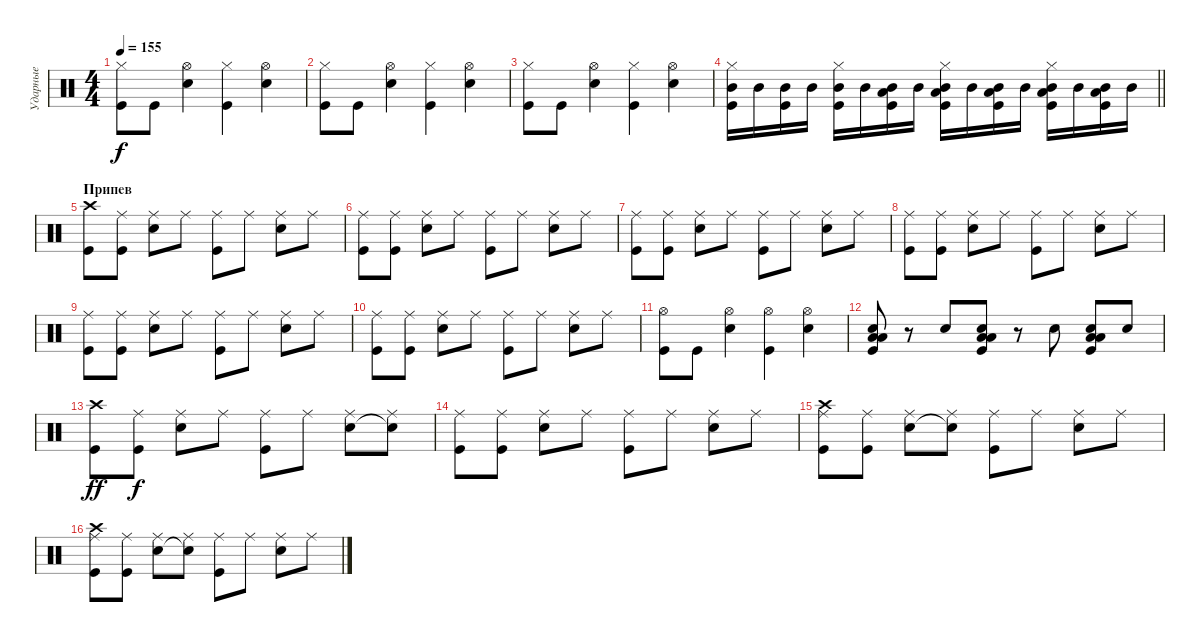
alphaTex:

\track ("Ударные" "Ударные") {instrument percussion}
\staff {score}
\articulation defaults
\ts (4 4)
\tempo 155
\clef neutral
\ks c
("Hi-Hat (closed)" "Kick (hit)").8{dy f} "Kick (hit)".8 ("Hi-Hat (open)" "Snare (hit) 2").4 ("Hi-Hat (closed)" "Kick (hit)").4 ("Hi-Hat (open)" "Snare (hit) 2").4 |
("Hi-Hat (closed)" "Kick (hit)").8 "Kick (hit)".8 ("Hi-Hat (open)" "Snare (hit) 2").4 ("Hi-Hat (closed)" "Kick (hit)").4 ("Hi-Hat (open)" "Snare (hit) 2").4 |
("Hi-Hat (closed)" "Kick (hit)").8 "Kick (hit)".8 ("Hi-Hat (open)" "Snare (hit) 2").4 ("Hi-Hat (closed)" "Kick (hit)").4 ("Hi-Hat (open)" "Snare (hit) 2").4 |
\barLineRight lightlight
("Hi-Hat (closed)" "Mid Tom (hit)" "Kick (hit)").16 "Mid Tom (hit)".16 ("Mid Tom (hit)" "Kick (hit)").16 "Mid Tom (hit)".16 ("Hi-Hat (closed)" "Mid Tom (hit)" "Kick (hit)").16 "Mid Tom (hit)".16 ("Mid Tom (hit)" "Low Floor Tom (hit)" "Kick (hit)").16 "Mid Tom (hit)".16 ("Hi-Hat (closed)" "Mid Tom (hit)" "Low Floor Tom (hit)" "Kick (hit)").16 "Mid Tom (hit)".16 ("Mid Tom (hit)" "Low Floor Tom (hit)" "Kick (hit)").16 "Mid Tom (hit)".16 ("Hi-Hat (closed)" "Mid Tom (hit)" "Low Floor Tom (hit)" "Kick (hit)").16 "Mid Tom (hit)".16 ("Mid Tom (hit)" "Low Floor Tom (hit)" "Kick (hit)").16 "Mid Tom (hit)".16 |
\section ("" "Припев")
("Crash high (hit)" "Kick (hit)").8 ("Ride (middle)" "Kick (hit)").8 ("Ride (middle)" "Snare (hit) 2").8 "Ride (middle)".8 ("Ride (middle)" "Kick (hit)").8 "Ride (middle)".8 ("Ride (middle)" "Snare (hit) 2").8 "Ride (middle)".8 |
("Ride (middle)" "Kick (hit)").8 ("Ride (middle)" "Kick (hit)").8 ("Ride (middle)" "Snare (hit) 2").8 "Ride (middle)".8 ("Ride (middle)" "Kick (hit)").8 "Ride (middle)".8 ("Ride (middle)" "Snare (hit) 2").8 "Ride (middle)".8 |
("Ride (middle)" "Kick (hit)").8 ("Ride (middle)" "Kick (hit)").8 ("Ride (middle)" "Snare (hit) 2").8 "Ride (middle)".8 ("Ride (middle)" "Kick (hit)").8 "Ride (middle)".8 ("Ride (middle)" "Snare (hit) 2").8 "Ride (middle)".8 |
("Ride (middle)" "Kick (hit)").8 ("Ride (middle)" "Kick (hit)").8 ("Ride (middle)" "Snare (hit) 2").8 "Ride (middle)".8 ("Ride (middle)" "Kick (hit)").8 "Ride (middle)".8 ("Ride (middle)" "Snare (hit) 2").8 "Ride (middle)".8 |
("Ride (middle)" "Kick (hit)").8 ("Ride (middle)" "Kick (hit)").8 ("Ride (middle)" "Snare (hit) 2").8 "Ride (middle)".8 ("Ride (middle)" "Kick (hit)").8 "Ride (middle)".8 ("Ride (middle)" "Snare (hit) 2").8 "Ride (middle)".8 |
("Ride (middle)" "Kick (hit)").8 ("Ride (middle)" "Kick (hit)").8 ("Ride (middle)" "Snare (hit) 2").8 "Ride (middle)".8 ("Ride (middle)" "Kick (hit)").8 "Ride (middle)".8 ("Ride (middle)" "Snare (hit) 2").8 "Ride (middle)".8 |
("Hi-Hat (open)" "Kick (hit)").8 "Kick (hit)".8 ("Hi-Hat (open)" "Snare (hit) 2").4 ("Hi-Hat (open)" "Kick (hit)").4 ("Hi-Hat (open)" "Snare (hit) 2").4 |
("Low Floor Tom (hit)" "Snare (hit) 2" "Low Tom (hit)" "Kick (hit)").8 r.8 "Snare (hit) 2".8 ("Low Floor Tom (hit)" "Snare (hit) 2" "Low Tom (hit)" "Kick (hit)").8 r.8 "Snare (hit) 2".8 ("Low Floor Tom (hit)" "Snare (hit) 2" "Low Tom (hit)" "Kick (hit)").8 "Snare (hit) 2".8 |
("Crash high (hit)" "Kick (hit)").8{dy ff} ("Ride (middle)" "Kick (hit)").8{dy f} ("Ride (middle)" "Snare (hit) 2").8 "Ride (middle)".8 ("Ride (middle)" "Kick (hit)").8 "Ride (middle)".8 ("Ride (middle)" "Snare (hit) 2").8 ("Ride (middle)" "Snare (hit)"{t}).8 |
("Ride (middle)" "Kick (hit)").8 ("Ride (middle)" "Kick (hit)").8 ("Ride (middle)" "Snare (hit) 2").8 "Ride (middle)".8 ("Ride (middle)" "Kick (hit)").8 "Ride (middle)".8 ("Ride (middle)" "Snare (hit) 2").8 "Ride (middle)".8 |
("Ride (middle)" "Crash high (hit)" "Kick (hit)").8 ("Ride (middle)" "Kick (hit)").8 ("Ride (middle)" "Snare (hit) 2").8 ("Ride (middle)" "Snare (hit)"{t}).8 ("Ride (middle)" "Kick (hit)").8 "Ride (middle)".8 ("Ride (middle)" "Snare (hit) 2").8 "Ride (middle)".8 |
("Ride (middle)" "Crash high (hit)" "Kick (hit)").8 ("Ride (middle)" "Kick (hit)").8 ("Ride (middle)" "Snare (hit) 2").8 ("Ride (middle)" "Snare (hit)"{t}).8 ("Ride (middle)" "Kick (hit)").8 "Ride (middle)".8 ("Ride (middle)" "Snare (hit) 2").8 "Ride (middle)".8
